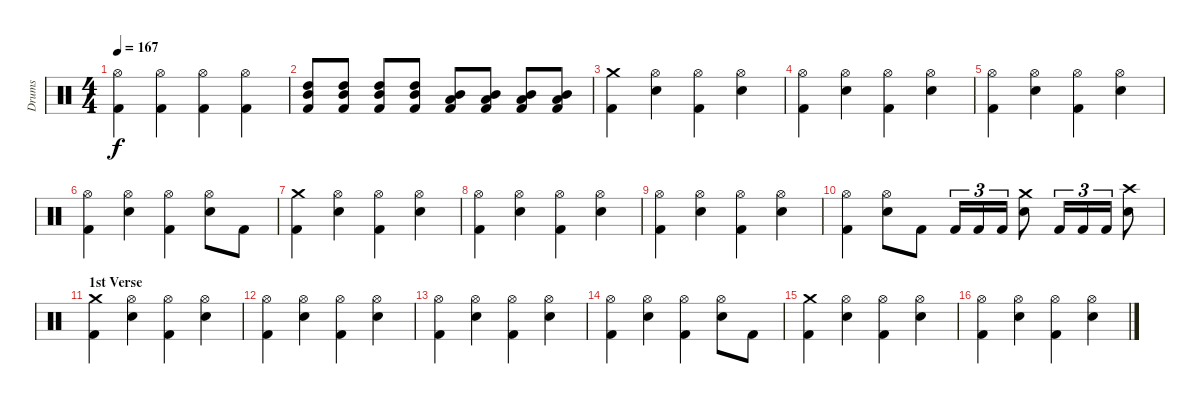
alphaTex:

\track ("Drums" "Drums") {instrument percussion}
\staff {score}
\articulation defaults
\ts (4 4)
\tempo 167
\clef neutral
\ks c
("Kick (hit) 2" "Hi-Hat (open)").4{dy f} ("Kick (hit) 2" "Hi-Hat (open)").4 ("Kick (hit) 2" "Hi-Hat (open)").4 ("Kick (hit) 2" "Hi-Hat (open)").4 |
("Kick (hit) 2" "High Tom (hit)" "Mid Tom (hit)").8 ("Kick (hit) 2" "High Tom (hit)" "Mid Tom (hit)").8 ("Kick (hit) 2" "High Tom (hit)" "Mid Tom (hit)").8 ("Kick (hit) 2" "High Tom (hit)" "Mid Tom (hit)").8 ("Kick (hit) 2" "Mid Tom (hit)" "Low Tom (hit)").8 ("Kick (hit) 2" "Mid Tom (hit)" "Low Tom (hit)").8 ("Kick (hit) 2" "Mid Tom (hit)" "Low Tom (hit)").8 ("Kick (hit) 2" "Mid Tom (hit)" "Low Tom (hit)").8 |
("Kick (hit) 2" "Crash medium (hit)").4 ("Electric Snare (hit)" "Hi-Hat (open)").4 ("Kick (hit) 2" "Hi-Hat (open)").4 ("Electric Snare (hit)" "Hi-Hat (open)").4 |
("Kick (hit) 2" "Hi-Hat (open)").4 ("Electric Snare (hit)" "Hi-Hat (open)").4 ("Kick (hit) 2" "Hi-Hat (open)").4 ("Electric Snare (hit)" "Hi-Hat (open)").4 |
("Kick (hit) 2" "Hi-Hat (open)").4 ("Electric Snare (hit)" "Hi-Hat (open)").4 ("Kick (hit) 2" "Hi-Hat (open)").4 ("Electric Snare (hit)" "Hi-Hat (open)").4 |
("Kick (hit) 2" "Hi-Hat (open)").4 ("Electric Snare (hit)" "Hi-Hat (open)").4 ("Kick (hit) 2" "Hi-Hat (open)").4 ("Electric Snare (hit)" "Hi-Hat (open)").8 "Kick (hit) 2".8 |
("Kick (hit) 2" "Crash medium (hit)").4 ("Electric Snare (hit)" "Hi-Hat (open)").4 ("Kick (hit) 2" "Hi-Hat (open)").4 ("Electric Snare (hit)" "Hi-Hat (open)").4 |
("Kick (hit) 2" "Hi-Hat (open)").4 ("Electric Snare (hit)" "Hi-Hat (open)").4 ("Kick (hit) 2" "Hi-Hat (open)").4 ("Electric Snare (hit)" "Hi-Hat (open)").4 |
("Kick (hit) 2" "Hi-Hat (open)").4 ("Electric Snare (hit)" "Hi-Hat (open)").4 ("Kick (hit) 2" "Hi-Hat (open)").4 ("Electric Snare (hit)" "Hi-Hat (open)").4 |
("Kick (hit) 2" "Hi-Hat (open)").4 ("Electric Snare (hit)" "Hi-Hat (open)").8 "Kick (hit) 2".8 "Kick (hit) 2".16{tu (3 2)} "Kick (hit) 2".16{tu (3 2)} "Kick (hit) 2".16{tu (3 2)} ("Electric Snare (hit)" "Crash medium (hit)").8 "Kick (hit) 2".16{tu (3 2)} "Kick (hit) 2".16{tu (3 2)} "Kick (hit) 2".16{tu (3 2)} ("Electric Snare (hit)" "Crash high (hit)").8 |
\section ("" "1st Verse")
("Kick (hit) 2" "Crash medium (hit)").4 ("Electric Snare (hit)" "Hi-Hat (open)").4 ("Kick (hit) 2" "Hi-Hat (open)").4 ("Electric Snare (hit)" "Hi-Hat (open)").4 |
("Kick (hit) 2" "Hi-Hat (open)").4 ("Electric Snare (hit)" "Hi-Hat (open)").4 ("Kick (hit) 2" "Hi-Hat (open)").4 ("Electric Snare (hit)" "Hi-Hat (open)").4 |
("Kick (hit) 2" "Hi-Hat (open)").4 ("Electric Snare (hit)" "Hi-Hat (open)").4 ("Kick (hit) 2" "Hi-Hat (open)").4 ("Electric Snare (hit)" "Hi-Hat (open)").4 |
("Kick (hit) 2" "Hi-Hat (open)").4 ("Electric Snare (hit)" "Hi-Hat (open)").4 ("Kick (hit) 2" "Hi-Hat (open)").4 ("Electric Snare (hit)" "Hi-Hat (open)").8 "Kick (hit) 2".8 |
("Kick (hit) 2" "Crash medium (hit)").4 ("Electric Snare (hit)" "Hi-Hat (open)").4 ("Kick (hit) 2" "Hi-Hat (open)").4 ("Electric Snare (hit)" "Hi-Hat (open)").4 |
("Kick (hit) 2" "Hi-Hat (open)").4 ("Electric Snare (hit)" "Hi-Hat (open)").4 ("Kick (hit) 2" "Hi-Hat (open)").4 ("Electric Snare (hit)" "Hi-Hat (open)").4
